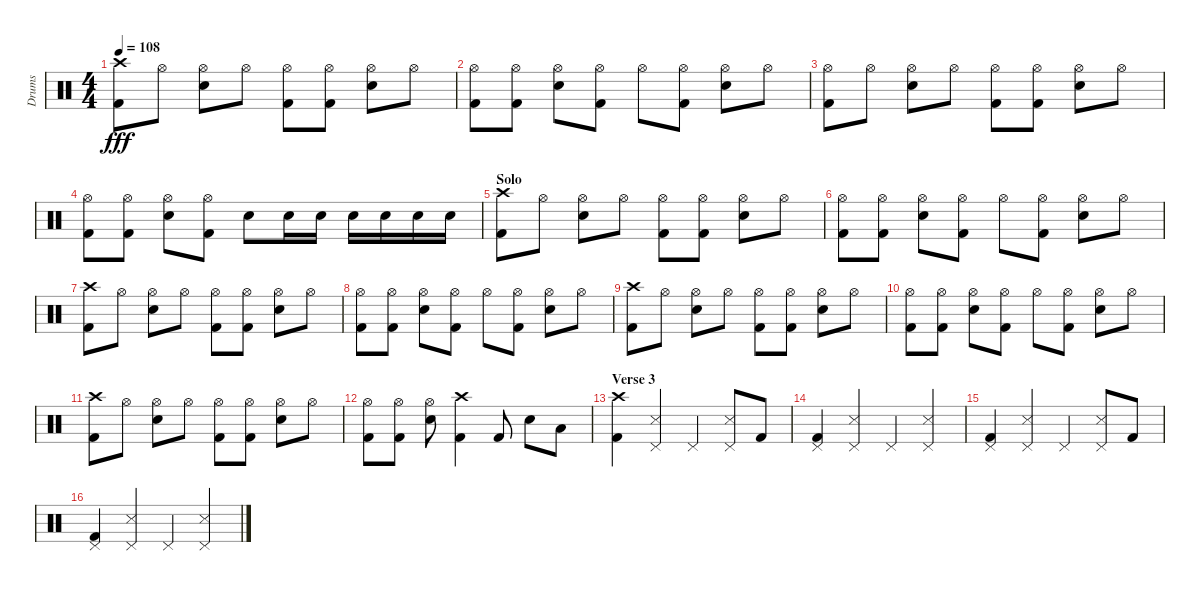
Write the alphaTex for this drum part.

\track ("Drums" "Drums") {instrument percussion}
\staff {score}
\articulation defaults
\ts (4 4)
\tempo 108
\clef neutral
\ks c
("Crash high (hit)" "Kick (hit) 2").8{dy fff} "Hi-Hat (open)".8 ("Hi-Hat (open)" "Snare (hit) 2").8 "Hi-Hat (open)".8 ("Hi-Hat (open)" "Kick (hit) 2").8 ("Hi-Hat (open)" "Kick (hit) 2").8 ("Hi-Hat (open)" "Snare (hit) 2").8 "Hi-Hat (open)".8 |
("Hi-Hat (open)" "Kick (hit) 2").8 ("Hi-Hat (open)" "Kick (hit) 2").8 ("Hi-Hat (open)" "Snare (hit) 2").8 ("Hi-Hat (open)" "Kick (hit) 2").8 "Hi-Hat (open)".8 ("Hi-Hat (open)" "Kick (hit) 2").8 ("Hi-Hat (open)" "Snare (hit) 2").8 "Hi-Hat (open)".8 |
("Hi-Hat (open)" "Kick (hit) 2").8 "Hi-Hat (open)".8 ("Hi-Hat (open)" "Snare (hit) 2").8 "Hi-Hat (open)".8 ("Hi-Hat (open)" "Kick (hit) 2").8 ("Hi-Hat (open)" "Kick (hit) 2").8 ("Hi-Hat (open)" "Snare (hit) 2").8 "Hi-Hat (open)".8 |
("Hi-Hat (open)" "Kick (hit) 2").8 ("Hi-Hat (open)" "Kick (hit) 2").8 ("Hi-Hat (open)" "Snare (hit) 2").8 ("Hi-Hat (open)" "Kick (hit) 2").8 "Snare (hit) 2".8 "Snare (hit) 2".16 "Snare (hit) 2".16 "Snare (hit) 2".16 "Snare (hit) 2".16 "Snare (hit) 2".16 "Snare (hit) 2".16 |
\section ("" "Solo")
("Crash high (hit)" "Kick (hit) 2").8 "Hi-Hat (open)".8 ("Hi-Hat (open)" "Snare (hit) 2").8 "Hi-Hat (open)".8 ("Hi-Hat (open)" "Kick (hit) 2").8 ("Hi-Hat (open)" "Kick (hit) 2").8 ("Hi-Hat (open)" "Snare (hit) 2").8 "Hi-Hat (open)".8 |
("Hi-Hat (open)" "Kick (hit) 2").8 ("Hi-Hat (open)" "Kick (hit) 2").8 ("Hi-Hat (open)" "Snare (hit) 2").8 ("Hi-Hat (open)" "Kick (hit) 2").8 "Hi-Hat (open)".8 ("Hi-Hat (open)" "Kick (hit) 2").8 ("Hi-Hat (open)" "Snare (hit) 2").8 "Hi-Hat (open)".8 |
("Crash high (hit)" "Kick (hit) 2").8 "Hi-Hat (open)".8 ("Hi-Hat (open)" "Snare (hit) 2").8 "Hi-Hat (open)".8 ("Hi-Hat (open)" "Kick (hit) 2").8 ("Hi-Hat (open)" "Kick (hit) 2").8 ("Hi-Hat (open)" "Snare (hit) 2").8 "Hi-Hat (open)".8 |
("Hi-Hat (open)" "Kick (hit) 2").8 ("Hi-Hat (open)" "Kick (hit) 2").8 ("Hi-Hat (open)" "Snare (hit) 2").8 ("Hi-Hat (open)" "Kick (hit) 2").8 "Hi-Hat (open)".8 ("Hi-Hat (open)" "Kick (hit) 2").8 ("Hi-Hat (open)" "Snare (hit) 2").8 "Hi-Hat (open)".8 |
("Crash high (hit)" "Kick (hit) 2").8 "Hi-Hat (open)".8 ("Hi-Hat (open)" "Snare (hit) 2").8 "Hi-Hat (open)".8 ("Hi-Hat (open)" "Kick (hit) 2").8 ("Hi-Hat (open)" "Kick (hit) 2").8 ("Hi-Hat (open)" "Snare (hit) 2").8 "Hi-Hat (open)".8 |
("Hi-Hat (open)" "Kick (hit) 2").8 ("Hi-Hat (open)" "Kick (hit) 2").8 ("Hi-Hat (open)" "Snare (hit) 2").8 ("Hi-Hat (open)" "Kick (hit) 2").8 "Hi-Hat (open)".8 ("Hi-Hat (open)" "Kick (hit) 2").8 ("Hi-Hat (open)" "Snare (hit) 2").8 "Hi-Hat (open)".8 |
("Crash high (hit)" "Kick (hit) 2").8 "Hi-Hat (open)".8 ("Hi-Hat (open)" "Snare (hit) 2").8 "Hi-Hat (open)".8 ("Hi-Hat (open)" "Kick (hit) 2").8 ("Hi-Hat (open)" "Kick (hit) 2").8 ("Hi-Hat (open)" "Snare (hit) 2").8 "Hi-Hat (open)".8 |
("Hi-Hat (open)" "Kick (hit) 2").8 ("Hi-Hat (open)" "Kick (hit) 2").8 ("Hi-Hat (open)" "Snare (hit) 2").8 ("Crash high (hit)" "Kick (hit) 2").4 "Kick (hit) 2".8 "Snare (hit) 2".8 "Low Tom (hit)".8 |
\section ("" "Verse 3")
("Crash high (hit)" "Kick (hit) 2").4 ("Pedal Hi-Hat (hit)" "Snare (side stick) 3").4 "Pedal Hi-Hat (hit)".4 ("Pedal Hi-Hat (hit)" "Snare (side stick) 3").8 "Kick (hit) 2".8 |
("Pedal Hi-Hat (hit)" "Kick (hit) 2").4 ("Pedal Hi-Hat (hit)" "Snare (side stick) 3").4 "Pedal Hi-Hat (hit)".4 ("Pedal Hi-Hat (hit)" "Snare (side stick) 3").4 |
("Pedal Hi-Hat (hit)" "Kick (hit) 2").4 ("Pedal Hi-Hat (hit)" "Snare (side stick) 3").4 "Pedal Hi-Hat (hit)".4 ("Pedal Hi-Hat (hit)" "Snare (side stick) 3").8 "Kick (hit) 2".8 |
("Pedal Hi-Hat (hit)" "Kick (hit) 2").4 ("Pedal Hi-Hat (hit)" "Snare (side stick) 3").4 "Pedal Hi-Hat (hit)".4 ("Pedal Hi-Hat (hit)" "Snare (side stick) 3").4
